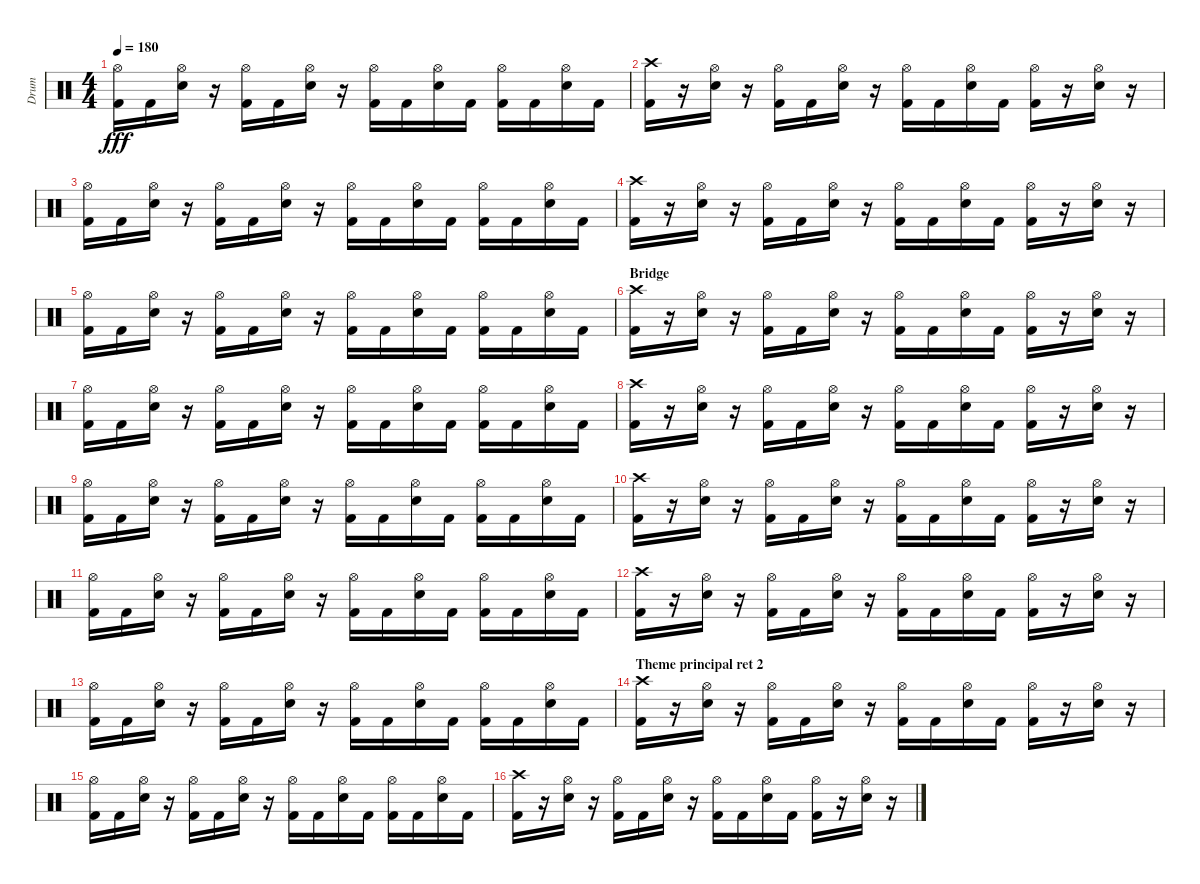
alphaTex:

\track ("Drum" "Drum") {instrument percussion}
\staff {score}
\articulation defaults
\ts (4 4)
\tempo 180
\clef neutral
\ks c
("Kick (hit) 2" "Hi-Hat (open)").16{dy fff} "Kick (hit) 2".16 ("Electric Snare (hit)" "Hi-Hat (open)").16 r.16 ("Kick (hit) 2" "Hi-Hat (open)").16 "Kick (hit) 2".16 ("Electric Snare (hit)" "Hi-Hat (open)").16 r.16 ("Kick (hit) 2" "Hi-Hat (open)").16 "Kick (hit) 2".16 ("Electric Snare (hit)" "Hi-Hat (open)").16 "Kick (hit) 2".16 ("Kick (hit) 2" "Hi-Hat (open)").16 "Kick (hit) 2".16 ("Electric Snare (hit)" "Hi-Hat (open)").16 "Kick (hit) 2".16 |
("Kick (hit) 2" "Crash high (hit)").16 r.16 ("Electric Snare (hit)" "Hi-Hat (open)").16 r.16 ("Kick (hit) 2" "Hi-Hat (open)").16 "Kick (hit) 2".16 ("Electric Snare (hit)" "Hi-Hat (open)").16 r.16 ("Kick (hit) 2" "Hi-Hat (open)").16 "Kick (hit) 2".16 ("Electric Snare (hit)" "Hi-Hat (open)").16 "Kick (hit) 2".16 ("Kick (hit) 2" "Hi-Hat (open)").16 r.16 ("Electric Snare (hit)" "Hi-Hat (open)").16 r.16 |
("Kick (hit) 2" "Hi-Hat (open)").16 "Kick (hit) 2".16 ("Electric Snare (hit)" "Hi-Hat (open)").16 r.16 ("Kick (hit) 2" "Hi-Hat (open)").16 "Kick (hit) 2".16 ("Electric Snare (hit)" "Hi-Hat (open)").16 r.16 ("Kick (hit) 2" "Hi-Hat (open)").16 "Kick (hit) 2".16 ("Electric Snare (hit)" "Hi-Hat (open)").16 "Kick (hit) 2".16 ("Kick (hit) 2" "Hi-Hat (open)").16 "Kick (hit) 2".16 ("Electric Snare (hit)" "Hi-Hat (open)").16 "Kick (hit) 2".16 |
("Kick (hit) 2" "Crash high (hit)").16 r.16 ("Electric Snare (hit)" "Hi-Hat (open)").16 r.16 ("Kick (hit) 2" "Hi-Hat (open)").16 "Kick (hit) 2".16 ("Electric Snare (hit)" "Hi-Hat (open)").16 r.16 ("Kick (hit) 2" "Hi-Hat (open)").16 "Kick (hit) 2".16 ("Electric Snare (hit)" "Hi-Hat (open)").16 "Kick (hit) 2".16 ("Kick (hit) 2" "Hi-Hat (open)").16 r.16 ("Electric Snare (hit)" "Hi-Hat (open)").16 r.16 |
("Kick (hit) 2" "Hi-Hat (open)").16 "Kick (hit) 2".16 ("Electric Snare (hit)" "Hi-Hat (open)").16 r.16 ("Kick (hit) 2" "Hi-Hat (open)").16 "Kick (hit) 2".16 ("Electric Snare (hit)" "Hi-Hat (open)").16 r.16 ("Kick (hit) 2" "Hi-Hat (open)").16 "Kick (hit) 2".16 ("Electric Snare (hit)" "Hi-Hat (open)").16 "Kick (hit) 2".16 ("Kick (hit) 2" "Hi-Hat (open)").16 "Kick (hit) 2".16 ("Electric Snare (hit)" "Hi-Hat (open)").16 "Kick (hit) 2".16 |
\section ("" "Bridge")
("Kick (hit) 2" "Crash high (hit)").16 r.16 ("Electric Snare (hit)" "Hi-Hat (open)").16 r.16 ("Kick (hit) 2" "Hi-Hat (open)").16 "Kick (hit) 2".16 ("Electric Snare (hit)" "Hi-Hat (open)").16 r.16 ("Kick (hit) 2" "Hi-Hat (open)").16 "Kick (hit) 2".16 ("Electric Snare (hit)" "Hi-Hat (open)").16 "Kick (hit) 2".16 ("Kick (hit) 2" "Hi-Hat (open)").16 r.16 ("Electric Snare (hit)" "Hi-Hat (open)").16 r.16 |
("Kick (hit) 2" "Hi-Hat (open)").16 "Kick (hit) 2".16 ("Electric Snare (hit)" "Hi-Hat (open)").16 r.16 ("Kick (hit) 2" "Hi-Hat (open)").16 "Kick (hit) 2".16 ("Electric Snare (hit)" "Hi-Hat (open)").16 r.16 ("Kick (hit) 2" "Hi-Hat (open)").16 "Kick (hit) 2".16 ("Electric Snare (hit)" "Hi-Hat (open)").16 "Kick (hit) 2".16 ("Kick (hit) 2" "Hi-Hat (open)").16 "Kick (hit) 2".16 ("Electric Snare (hit)" "Hi-Hat (open)").16 "Kick (hit) 2".16 |
("Kick (hit) 2" "Crash high (hit)").16 r.16 ("Electric Snare (hit)" "Hi-Hat (open)").16 r.16 ("Kick (hit) 2" "Hi-Hat (open)").16 "Kick (hit) 2".16 ("Electric Snare (hit)" "Hi-Hat (open)").16 r.16 ("Kick (hit) 2" "Hi-Hat (open)").16 "Kick (hit) 2".16 ("Electric Snare (hit)" "Hi-Hat (open)").16 "Kick (hit) 2".16 ("Kick (hit) 2" "Hi-Hat (open)").16 r.16 ("Electric Snare (hit)" "Hi-Hat (open)").16 r.16 |
("Kick (hit) 2" "Hi-Hat (open)").16 "Kick (hit) 2".16 ("Electric Snare (hit)" "Hi-Hat (open)").16 r.16 ("Kick (hit) 2" "Hi-Hat (open)").16 "Kick (hit) 2".16 ("Electric Snare (hit)" "Hi-Hat (open)").16 r.16 ("Kick (hit) 2" "Hi-Hat (open)").16 "Kick (hit) 2".16 ("Electric Snare (hit)" "Hi-Hat (open)").16 "Kick (hit) 2".16 ("Kick (hit) 2" "Hi-Hat (open)").16 "Kick (hit) 2".16 ("Electric Snare (hit)" "Hi-Hat (open)").16 "Kick (hit) 2".16 |
("Kick (hit) 2" "Crash high (hit)").16 r.16 ("Electric Snare (hit)" "Hi-Hat (open)").16 r.16 ("Kick (hit) 2" "Hi-Hat (open)").16 "Kick (hit) 2".16 ("Electric Snare (hit)" "Hi-Hat (open)").16 r.16 ("Kick (hit) 2" "Hi-Hat (open)").16 "Kick (hit) 2".16 ("Electric Snare (hit)" "Hi-Hat (open)").16 "Kick (hit) 2".16 ("Kick (hit) 2" "Hi-Hat (open)").16 r.16 ("Electric Snare (hit)" "Hi-Hat (open)").16 r.16 |
("Kick (hit) 2" "Hi-Hat (open)").16 "Kick (hit) 2".16 ("Electric Snare (hit)" "Hi-Hat (open)").16 r.16 ("Kick (hit) 2" "Hi-Hat (open)").16 "Kick (hit) 2".16 ("Electric Snare (hit)" "Hi-Hat (open)").16 r.16 ("Kick (hit) 2" "Hi-Hat (open)").16 "Kick (hit) 2".16 ("Electric Snare (hit)" "Hi-Hat (open)").16 "Kick (hit) 2".16 ("Kick (hit) 2" "Hi-Hat (open)").16 "Kick (hit) 2".16 ("Electric Snare (hit)" "Hi-Hat (open)").16 "Kick (hit) 2".16 |
("Kick (hit) 2" "Crash high (hit)").16 r.16 ("Electric Snare (hit)" "Hi-Hat (open)").16 r.16 ("Kick (hit) 2" "Hi-Hat (open)").16 "Kick (hit) 2".16 ("Electric Snare (hit)" "Hi-Hat (open)").16 r.16 ("Kick (hit) 2" "Hi-Hat (open)").16 "Kick (hit) 2".16 ("Electric Snare (hit)" "Hi-Hat (open)").16 "Kick (hit) 2".16 ("Kick (hit) 2" "Hi-Hat (open)").16 r.16 ("Electric Snare (hit)" "Hi-Hat (open)").16 r.16 |
("Kick (hit) 2" "Hi-Hat (open)").16 "Kick (hit) 2".16 ("Electric Snare (hit)" "Hi-Hat (open)").16 r.16 ("Kick (hit) 2" "Hi-Hat (open)").16 "Kick (hit) 2".16 ("Electric Snare (hit)" "Hi-Hat (open)").16 r.16 ("Kick (hit) 2" "Hi-Hat (open)").16 "Kick (hit) 2".16 ("Electric Snare (hit)" "Hi-Hat (open)").16 "Kick (hit) 2".16 ("Kick (hit) 2" "Hi-Hat (open)").16 "Kick (hit) 2".16 ("Electric Snare (hit)" "Hi-Hat (open)").16 "Kick (hit) 2".16 |
\section ("" "Theme principal ret 2")
("Kick (hit) 2" "Crash high (hit)").16 r.16 ("Electric Snare (hit)" "Hi-Hat (open)").16 r.16 ("Kick (hit) 2" "Hi-Hat (open)").16 "Kick (hit) 2".16 ("Electric Snare (hit)" "Hi-Hat (open)").16 r.16 ("Kick (hit) 2" "Hi-Hat (open)").16 "Kick (hit) 2".16 ("Electric Snare (hit)" "Hi-Hat (open)").16 "Kick (hit) 2".16 ("Kick (hit) 2" "Hi-Hat (open)").16 r.16 ("Electric Snare (hit)" "Hi-Hat (open)").16 r.16 |
("Kick (hit) 2" "Hi-Hat (open)").16 "Kick (hit) 2".16 ("Electric Snare (hit)" "Hi-Hat (open)").16 r.16 ("Kick (hit) 2" "Hi-Hat (open)").16 "Kick (hit) 2".16 ("Electric Snare (hit)" "Hi-Hat (open)").16 r.16 ("Kick (hit) 2" "Hi-Hat (open)").16 "Kick (hit) 2".16 ("Electric Snare (hit)" "Hi-Hat (open)").16 "Kick (hit) 2".16 ("Kick (hit) 2" "Hi-Hat (open)").16 "Kick (hit) 2".16 ("Electric Snare (hit)" "Hi-Hat (open)").16 "Kick (hit) 2".16 |
("Kick (hit) 2" "Crash high (hit)").16 r.16 ("Electric Snare (hit)" "Hi-Hat (open)").16 r.16 ("Kick (hit) 2" "Hi-Hat (open)").16 "Kick (hit) 2".16 ("Electric Snare (hit)" "Hi-Hat (open)").16 r.16 ("Kick (hit) 2" "Hi-Hat (open)").16 "Kick (hit) 2".16 ("Electric Snare (hit)" "Hi-Hat (open)").16 "Kick (hit) 2".16 ("Kick (hit) 2" "Hi-Hat (open)").16 r.16 ("Electric Snare (hit)" "Hi-Hat (open)").16 r.16
